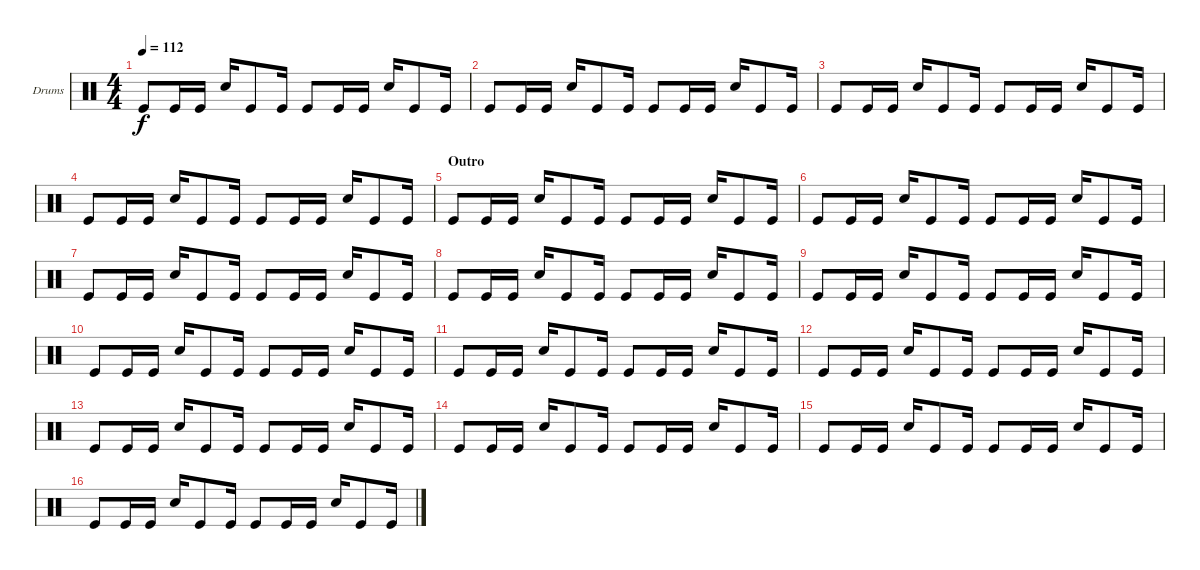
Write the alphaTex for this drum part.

\bracketExtendMode groupsimilarinstruments
\firstSystemTrackNameOrientation horizontal
\otherSystemsTrackNameOrientation horizontal
\track ("Drumkit" "Drums") {instrument percussion}
\staff {score}
\articulation defaults
\ts (4 4)
\tempo 112
\clef neutral
\ks c "Kick (hit)".8{dy f} "Kick (hit)".16 "Kick (hit)".16 "Snare (hit) 2".16 "Kick (hit)".8 "Kick (hit)".16 "Kick (hit)".8 "Kick (hit)".16 "Kick (hit)".16 "Snare (hit) 2".16 "Kick (hit)".8 "Kick (hit)".16
|
"Kick (hit)".8 "Kick (hit)".16 "Kick (hit)".16 "Snare (hit) 2".16 "Kick (hit)".8 "Kick (hit)".16 "Kick (hit)".8 "Kick (hit)".16 "Kick (hit)".16 "Snare (hit) 2".16 "Kick (hit)".8 "Kick (hit)".16 |
"Kick (hit)".8 "Kick (hit)".16 "Kick (hit)".16 "Snare (hit) 2".16 "Kick (hit)".8 "Kick (hit)".16 "Kick (hit)".8 "Kick (hit)".16 "Kick (hit)".16 "Snare (hit) 2".16 "Kick (hit)".8 "Kick (hit)".16 |
"Kick (hit)".8 "Kick (hit)".16 "Kick (hit)".16 "Snare (hit) 2".16 "Kick (hit)".8 "Kick (hit)".16 "Kick (hit)".8 "Kick (hit)".16 "Kick (hit)".16 "Snare (hit) 2".16 "Kick (hit)".8 "Kick (hit)".16 |
\section ("" "Outro")
"Kick (hit)".8 "Kick (hit)".16 "Kick (hit)".16 "Snare (hit) 2".16 "Kick (hit)".8 "Kick (hit)".16 "Kick (hit)".8 "Kick (hit)".16 "Kick (hit)".16 "Snare (hit) 2".16 "Kick (hit)".8 "Kick (hit)".16 |
"Kick (hit)".8 "Kick (hit)".16 "Kick (hit)".16 "Snare (hit) 2".16 "Kick (hit)".8 "Kick (hit)".16 "Kick (hit)".8 "Kick (hit)".16 "Kick (hit)".16 "Snare (hit) 2".16 "Kick (hit)".8 "Kick (hit)".16 |
"Kick (hit)".8 "Kick (hit)".16 "Kick (hit)".16 "Snare (hit) 2".16 "Kick (hit)".8 "Kick (hit)".16 "Kick (hit)".8 "Kick (hit)".16 "Kick (hit)".16 "Snare (hit) 2".16 "Kick (hit)".8 "Kick (hit)".16 |
"Kick (hit)".8 "Kick (hit)".16 "Kick (hit)".16 "Snare (hit) 2".16 "Kick (hit)".8 "Kick (hit)".16 "Kick (hit)".8 "Kick (hit)".16 "Kick (hit)".16 "Snare (hit) 2".16 "Kick (hit)".8 "Kick (hit)".16 |
"Kick (hit)".8 "Kick (hit)".16 "Kick (hit)".16 "Snare (hit) 2".16 "Kick (hit)".8 "Kick (hit)".16 "Kick (hit)".8 "Kick (hit)".16 "Kick (hit)".16 "Snare (hit) 2".16 "Kick (hit)".8 "Kick (hit)".16 |
"Kick (hit)".8 "Kick (hit)".16 "Kick (hit)".16 "Snare (hit) 2".16 "Kick (hit)".8 "Kick (hit)".16 "Kick (hit)".8 "Kick (hit)".16 "Kick (hit)".16 "Snare (hit) 2".16 "Kick (hit)".8 "Kick (hit)".16 |
"Kick (hit)".8 "Kick (hit)".16 "Kick (hit)".16 "Snare (hit) 2".16 "Kick (hit)".8 "Kick (hit)".16 "Kick (hit)".8 "Kick (hit)".16 "Kick (hit)".16 "Snare (hit) 2".16 "Kick (hit)".8 "Kick (hit)".16 |
"Kick (hit)".8 "Kick (hit)".16 "Kick (hit)".16 "Snare (hit) 2".16 "Kick (hit)".8 "Kick (hit)".16 "Kick (hit)".8 "Kick (hit)".16 "Kick (hit)".16 "Snare (hit) 2".16 "Kick (hit)".8 "Kick (hit)".16 |
"Kick (hit)".8 "Kick (hit)".16 "Kick (hit)".16 "Snare (hit) 2".16 "Kick (hit)".8 "Kick (hit)".16 "Kick (hit)".8 "Kick (hit)".16 "Kick (hit)".16 "Snare (hit) 2".16 "Kick (hit)".8 "Kick (hit)".16 |
"Kick (hit)".8 "Kick (hit)".16 "Kick (hit)".16 "Snare (hit) 2".16 "Kick (hit)".8 "Kick (hit)".16 "Kick (hit)".8 "Kick (hit)".16 "Kick (hit)".16 "Snare (hit) 2".16 "Kick (hit)".8 "Kick (hit)".16 |
"Kick (hit)".8 "Kick (hit)".16 "Kick (hit)".16 "Snare (hit) 2".16 "Kick (hit)".8 "Kick (hit)".16 "Kick (hit)".8 "Kick (hit)".16 "Kick (hit)".16 "Snare (hit) 2".16 "Kick (hit)".8 "Kick (hit)".16 |
"Kick (hit)".8 "Kick (hit)".16 "Kick (hit)".16 "Snare (hit) 2".16 "Kick (hit)".8 "Kick (hit)".16 "Kick (hit)".8 "Kick (hit)".16 "Kick (hit)".16 "Snare (hit) 2".16 "Kick (hit)".8 "Kick (hit)".16
